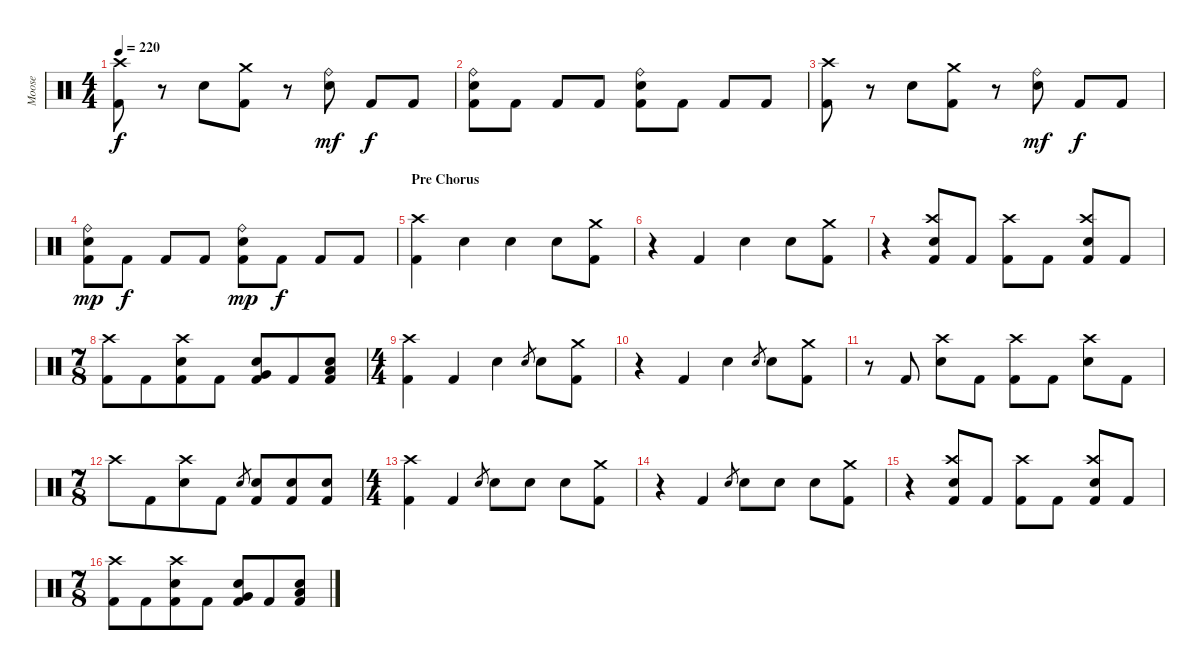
\track ("Moose" "Moose") {instrument percussion}
\staff {score}
\articulation defaults
\ts (4 4)
\tempo 220
\clef neutral
\ks c
("Kick (hit) 2" "Crash high (hit)").8{dy f} r.8 "Snare (hit) 2".8 ("Kick (hit) 2" "Crash medium (hit)").8 r.8 ("Snare (hit) 2" "Ride (bell)").8{dy mf} "Kick (hit) 2".8{dy f} "Kick (hit) 2".8 |
("Kick (hit) 2" "Snare (hit) 2" "Ride (bell)").8 "Kick (hit) 2".8 "Kick (hit) 2".8 "Kick (hit) 2".8 ("Kick (hit) 2" "Snare (hit) 2" "Ride (bell)").8 "Kick (hit) 2".8 "Kick (hit) 2".8 "Kick (hit) 2".8 |
("Kick (hit) 2" "Crash high (hit)").8 r.8 "Snare (hit) 2".8 ("Kick (hit) 2" "Crash medium (hit)").8 r.8 ("Snare (hit) 2" "Ride (bell)").8{dy mf} "Kick (hit) 2".8{dy f} "Kick (hit) 2".8 |
("Kick (hit) 2" "Snare (hit) 2" "Ride (bell)").8{dy mp} "Kick (hit) 2".8{dy f} "Kick (hit) 2".8 "Kick (hit) 2".8 ("Kick (hit) 2" "Snare (hit) 2" "Ride (bell)").8{dy mp} "Kick (hit) 2".8{dy f} "Kick (hit) 2".8 "Kick (hit) 2".8 |
\section ("" "Pre Chorus")
("Kick (hit) 2" "Crash high (hit)").4 "Snare (hit) 2".4 "Snare (hit) 2".4 "Snare (hit) 2".8 ("Kick (hit) 2" "Crash medium (hit)").8 |
r.4 "Kick (hit) 2".4 "Snare (hit) 2".4 "Snare (hit) 2".8 ("Kick (hit) 2" "Crash medium (hit)").8 |
r.4 ("Kick (hit) 2" "Snare (hit) 2" "Crash high (hit)").8 "Kick (hit) 2".8 ("Kick (hit) 2" "Crash high (hit)").8 "Kick (hit) 2".8 ("Kick (hit) 2" "Snare (hit) 2" "Crash high (hit)").8 "Kick (hit) 2".8 |
\ts (7 8)
("Kick (hit) 2" "Crash high (hit)").8 "Kick (hit) 2".8 ("Kick (hit) 2" "Snare (hit) 2" "Crash high (hit)").8 "Kick (hit) 2".8 ("Kick (hit) 2" "Very Low Tom (hit)" "Snare (hit) 2").8 "Kick (hit) 2".8 ("Kick (hit) 2" "Low Floor Tom (hit)" "Snare (hit) 2").8 |
\ts (4 4)
("Kick (hit) 2" "Crash high (hit)").4 "Kick (hit) 2".4 "Snare (hit) 2".4 "Snare (hit) 2".8{gr} "Snare (hit) 2".8 ("Kick (hit) 2" "Crash medium (hit)").8 |
r.4 "Kick (hit) 2".4 "Snare (hit) 2".4 "Snare (hit) 2".8{gr} "Snare (hit) 2".8 ("Kick (hit) 2" "Crash medium (hit)").8 |
r.8 "Kick (hit) 2".8 ("Snare (hit) 2" "Crash high (hit)").8 "Kick (hit) 2".8 ("Kick (hit) 2" "Crash high (hit)").8 "Kick (hit) 2".8 ("Snare (hit) 2" "Crash high (hit)").8 "Kick (hit) 2".8 |
\ts (7 8)
"Crash high (hit)".8 "Kick (hit) 2".8 ("Snare (hit) 2" "Crash high (hit)").8 "Kick (hit) 2".8 "Snare (hit) 2".8{gr} ("Kick (hit) 2" "Snare (hit) 2").8 ("Kick (hit) 2" "Snare (hit) 2").8 ("Kick (hit) 2" "Snare (hit) 2").8 |
\ts (4 4)
("Kick (hit) 2" "Crash high (hit)").4 "Kick (hit) 2".4 "Snare (hit) 2".8{gr} "Snare (hit) 2".8 "Snare (hit) 2".8 "Snare (hit) 2".8 ("Kick (hit) 2" "Crash medium (hit)").8 |
r.4 "Kick (hit) 2".4 "Snare (hit) 2".8{gr} "Snare (hit) 2".8 "Snare (hit) 2".8 "Snare (hit) 2".8 ("Kick (hit) 2" "Crash medium (hit)").8 |
r.4 ("Kick (hit) 2" "Snare (hit) 2" "Crash high (hit)").8 "Kick (hit) 2".8 ("Kick (hit) 2" "Crash high (hit)").8 "Kick (hit) 2".8 ("Kick (hit) 2" "Snare (hit) 2" "Crash high (hit)").8 "Kick (hit) 2".8 |
\ts (7 8)
("Kick (hit) 2" "Crash high (hit)").8 "Kick (hit) 2".8 ("Kick (hit) 2" "Snare (hit) 2" "Crash high (hit)").8 "Kick (hit) 2".8 ("Kick (hit) 2" "Very Low Tom (hit)" "Snare (hit) 2").8 "Kick (hit) 2".8 ("Kick (hit) 2" "Low Floor Tom (hit)" "Snare (hit) 2").8
